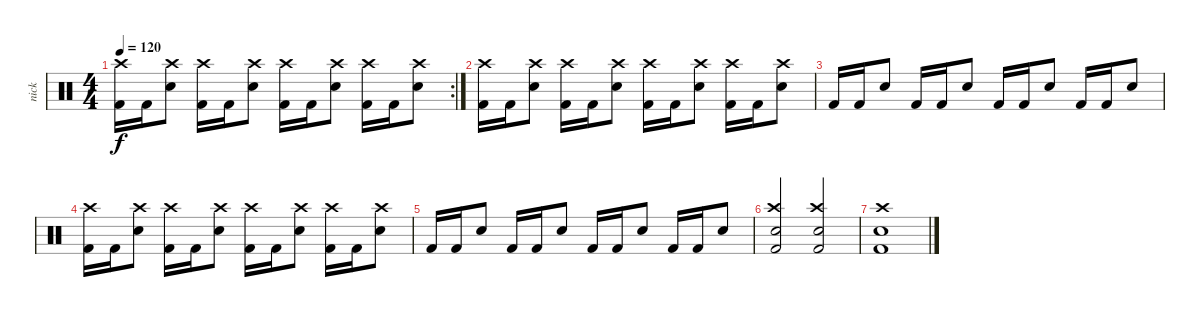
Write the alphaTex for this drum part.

\track ("nick" "nick") {instrument percussion}
\staff {score}
\articulation defaults
\rc 2
\ts (4 4)
\tempo 120
\clef neutral
\ks c
("Kick (hit) 2" "Crash high (hit)").16{dy f} "Kick (hit) 2".16 ("Snare (hit) 2" "Crash high (hit)").8 ("Kick (hit) 2" "Crash high (hit)").16 "Kick (hit) 2".16 ("Snare (hit) 2" "Crash high (hit)").8 ("Kick (hit) 2" "Crash high (hit)").16 "Kick (hit) 2".16 ("Snare (hit) 2" "Crash high (hit)").8 ("Kick (hit) 2" "Crash high (hit)").16 "Kick (hit) 2".16 ("Snare (hit) 2" "Crash high (hit)").8 |
("Kick (hit) 2" "Crash high (hit)").16 "Kick (hit) 2".16 ("Snare (hit) 2" "Crash high (hit)").8 ("Kick (hit) 2" "Crash high (hit)").16 "Kick (hit) 2".16 ("Snare (hit) 2" "Crash high (hit)").8 ("Kick (hit) 2" "Crash high (hit)").16 "Kick (hit) 2".16 ("Snare (hit) 2" "Crash high (hit)").8 ("Kick (hit) 2" "Crash high (hit)").16 "Kick (hit) 2".16 ("Snare (hit) 2" "Crash high (hit)").8 |
"Kick (hit) 2".16 "Kick (hit) 2".16 "Snare (hit) 2".8 "Kick (hit) 2".16 "Kick (hit) 2".16 "Snare (hit) 2".8 "Kick (hit) 2".16 "Kick (hit) 2".16 "Snare (hit) 2".8 "Kick (hit) 2".16 "Kick (hit) 2".16 "Snare (hit) 2".8 |
("Kick (hit) 2" "Crash high (hit)").16 "Kick (hit) 2".16 ("Snare (hit) 2" "Crash high (hit)").8 ("Kick (hit) 2" "Crash high (hit)").16 "Kick (hit) 2".16 ("Snare (hit) 2" "Crash high (hit)").8 ("Kick (hit) 2" "Crash high (hit)").16 "Kick (hit) 2".16 ("Snare (hit) 2" "Crash high (hit)").8 ("Kick (hit) 2" "Crash high (hit)").16 "Kick (hit) 2".16 ("Snare (hit) 2" "Crash high (hit)").8 |
"Kick (hit) 2".16 "Kick (hit) 2".16 "Snare (hit) 2".8 "Kick (hit) 2".16 "Kick (hit) 2".16 "Snare (hit) 2".8 "Kick (hit) 2".16 "Kick (hit) 2".16 "Snare (hit) 2".8 "Kick (hit) 2".16 "Kick (hit) 2".16 "Snare (hit) 2".8 |
("Kick (hit) 2" "Snare (hit) 2" "Crash high (hit)").2 ("Kick (hit) 2" "Snare (hit) 2" "Crash high (hit)").2 |
("Kick (hit) 2" "Snare (hit) 2" "Crash high (hit)").1
